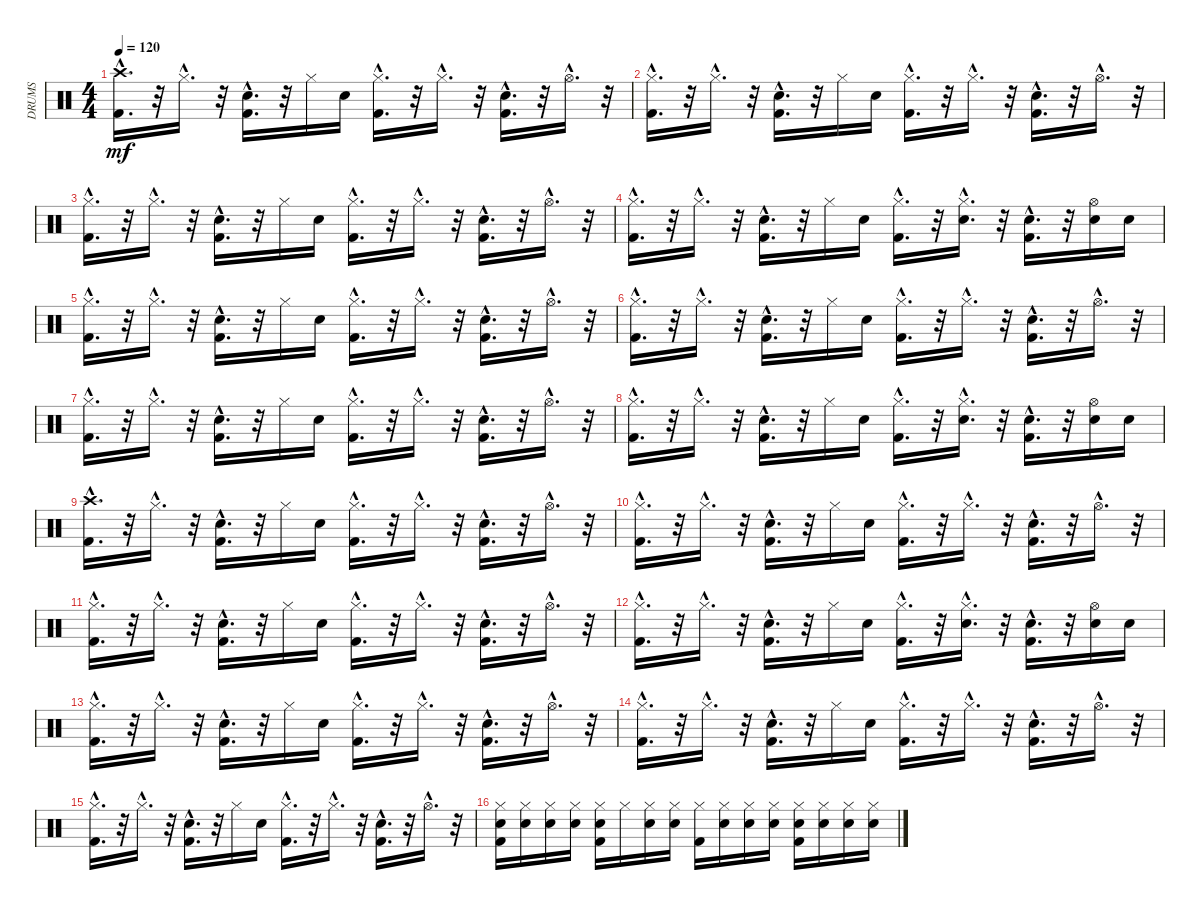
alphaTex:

\track ("DRUMS" "DRUMS") {instrument percussion}
\staff {score}
\articulation defaults
\ts (4 4)
\tempo 120
\clef neutral
\ks c
("Crash high (hit)"{hac} "Kick (hit) 2"{hac}).16{d dy mf} r.32 "Hi-Hat (closed)"{hac}.16{d} r.32 ("Kick (hit) 2"{hac} "Electric Snare (hit)"{hac}).16{d} r.32 "Hi-Hat (closed)".16 "Electric Snare (hit)".16 ("Kick (hit) 2"{hac} "Hi-Hat (closed)"{hac}).16{d} r.32 "Hi-Hat (closed)"{hac}.16{d} r.32 ("Kick (hit) 2"{hac} "Electric Snare (hit)"{hac}).16{d} r.32 "Hi-Hat (open)"{hac}.16{d} r.32 |
("Hi-Hat (closed)"{hac} "Kick (hit) 2"{hac}).16{d} r.32 "Hi-Hat (closed)"{hac}.16{d} r.32 ("Electric Snare (hit)"{hac} "Kick (hit) 2"{hac}).16{d} r.32 "Hi-Hat (closed)".16 "Electric Snare (hit)".16 ("Hi-Hat (closed)"{hac} "Kick (hit) 2"{hac}).16{d} r.32 "Hi-Hat (closed)"{hac}.16{d} r.32 ("Electric Snare (hit)"{hac} "Kick (hit) 2"{hac}).16{d} r.32 "Hi-Hat (open)"{hac}.16{d} r.32 |
("Hi-Hat (closed)"{hac} "Kick (hit) 2"{hac}).16{d} r.32 "Hi-Hat (closed)"{hac}.16{d} r.32 ("Electric Snare (hit)"{hac} "Kick (hit) 2"{hac}).16{d} r.32 "Hi-Hat (closed)".16 "Electric Snare (hit)".16 ("Hi-Hat (closed)"{hac} "Kick (hit) 2"{hac}).16{d} r.32 "Hi-Hat (closed)"{hac}.16{d} r.32 ("Electric Snare (hit)"{hac} "Kick (hit) 2"{hac}).16{d} r.32 "Hi-Hat (open)"{hac}.16{d} r.32 |
("Hi-Hat (closed)"{hac} "Kick (hit) 2"{hac}).16{d} r.32 "Hi-Hat (closed)"{hac}.16{d} r.32 ("Electric Snare (hit)"{hac} "Kick (hit) 2"{hac}).16{d} r.32 "Hi-Hat (closed)".16 "Electric Snare (hit)".16 ("Hi-Hat (closed)"{hac} "Kick (hit) 2"{hac}).16{d} r.32 ("Hi-Hat (closed)"{hac} "Electric Snare (hit)"{hac}).16{d} r.32 ("Electric Snare (hit)"{hac} "Kick (hit) 2"{hac}).16{d} r.32 ("Hi-Hat (open)" "Electric Snare (hit)").16 "Electric Snare (hit)".16 |
("Hi-Hat (closed)"{hac} "Kick (hit) 2"{hac}).16{d} r.32 "Hi-Hat (closed)"{hac}.16{d} r.32 ("Electric Snare (hit)"{hac} "Kick (hit) 2"{hac}).16{d} r.32 "Hi-Hat (closed)".16 "Electric Snare (hit)".16 ("Hi-Hat (closed)"{hac} "Kick (hit) 2"{hac}).16{d} r.32 "Hi-Hat (closed)"{hac}.16{d} r.32 ("Electric Snare (hit)"{hac} "Kick (hit) 2"{hac}).16{d} r.32 "Hi-Hat (open)"{hac}.16{d} r.32 |
("Kick (hit) 2"{hac} "Hi-Hat (closed)"{hac}).16{d} r.32 "Hi-Hat (closed)"{hac}.16{d} r.32 ("Kick (hit) 2"{hac} "Electric Snare (hit)"{hac}).16{d} r.32 "Hi-Hat (closed)".16 "Electric Snare (hit)".16 ("Kick (hit) 2"{hac} "Hi-Hat (closed)"{hac}).16{d} r.32 "Hi-Hat (closed)"{hac}.16{d} r.32 ("Kick (hit) 2"{hac} "Electric Snare (hit)"{hac}).16{d} r.32 "Hi-Hat (open)"{hac}.16{d} r.32 |
("Kick (hit) 2"{hac} "Hi-Hat (closed)"{hac}).16{d} r.32 "Hi-Hat (closed)"{hac}.16{d} r.32 ("Kick (hit) 2"{hac} "Electric Snare (hit)"{hac}).16{d} r.32 "Hi-Hat (closed)".16 "Electric Snare (hit)".16 ("Kick (hit) 2"{hac} "Hi-Hat (closed)"{hac}).16{d} r.32 "Hi-Hat (closed)"{hac}.16{d} r.32 ("Kick (hit) 2"{hac} "Electric Snare (hit)"{hac}).16{d} r.32 "Hi-Hat (open)"{hac}.16{d} r.32 |
("Kick (hit) 2"{hac} "Hi-Hat (closed)"{hac}).16{d} r.32 "Hi-Hat (closed)"{hac}.16{d} r.32 ("Kick (hit) 2"{hac} "Electric Snare (hit)"{hac}).16{d} r.32 "Hi-Hat (closed)".16 "Electric Snare (hit)".16 ("Kick (hit) 2"{hac} "Hi-Hat (closed)"{hac}).16{d} r.32 ("Electric Snare (hit)"{hac} "Hi-Hat (closed)"{hac}).16{d} r.32 ("Kick (hit) 2"{hac} "Electric Snare (hit)"{hac}).16{d} r.32 ("Electric Snare (hit)" "Hi-Hat (open)").16 "Electric Snare (hit)".16 |
("Crash high (hit)"{hac} "Kick (hit) 2"{hac}).16{d} r.32 "Hi-Hat (closed)"{hac}.16{d} r.32 ("Kick (hit) 2"{hac} "Electric Snare (hit)"{hac}).16{d} r.32 "Hi-Hat (closed)".16 "Electric Snare (hit)".16 ("Kick (hit) 2"{hac} "Hi-Hat (closed)"{hac}).16{d} r.32 "Hi-Hat (closed)"{hac}.16{d} r.32 ("Kick (hit) 2"{hac} "Electric Snare (hit)"{hac}).16{d} r.32 "Hi-Hat (open)"{hac}.16{d} r.32 |
("Hi-Hat (closed)"{hac} "Kick (hit) 2"{hac}).16{d} r.32 "Hi-Hat (closed)"{hac}.16{d} r.32 ("Electric Snare (hit)"{hac} "Kick (hit) 2"{hac}).16{d} r.32 "Hi-Hat (closed)".16 "Electric Snare (hit)".16 ("Hi-Hat (closed)"{hac} "Kick (hit) 2"{hac}).16{d} r.32 "Hi-Hat (closed)"{hac}.16{d} r.32 ("Electric Snare (hit)"{hac} "Kick (hit) 2"{hac}).16{d} r.32 "Hi-Hat (open)"{hac}.16{d} r.32 |
("Hi-Hat (closed)"{hac} "Kick (hit) 2"{hac}).16{d} r.32 "Hi-Hat (closed)"{hac}.16{d} r.32 ("Electric Snare (hit)"{hac} "Kick (hit) 2"{hac}).16{d} r.32 "Hi-Hat (closed)".16 "Electric Snare (hit)".16 ("Hi-Hat (closed)"{hac} "Kick (hit) 2"{hac}).16{d} r.32 "Hi-Hat (closed)"{hac}.16{d} r.32 ("Electric Snare (hit)"{hac} "Kick (hit) 2"{hac}).16{d} r.32 "Hi-Hat (open)"{hac}.16{d} r.32 |
("Hi-Hat (closed)"{hac} "Kick (hit) 2"{hac}).16{d} r.32 "Hi-Hat (closed)"{hac}.16{d} r.32 ("Electric Snare (hit)"{hac} "Kick (hit) 2"{hac}).16{d} r.32 "Hi-Hat (closed)".16 "Electric Snare (hit)".16 ("Hi-Hat (closed)"{hac} "Kick (hit) 2"{hac}).16{d} r.32 ("Hi-Hat (closed)"{hac} "Electric Snare (hit)"{hac}).16{d} r.32 ("Electric Snare (hit)"{hac} "Kick (hit) 2"{hac}).16{d} r.32 ("Hi-Hat (open)" "Electric Snare (hit)").16 "Electric Snare (hit)".16 |
("Hi-Hat (closed)"{hac} "Kick (hit) 2"{hac}).16{d} r.32 "Hi-Hat (closed)"{hac}.16{d} r.32 ("Electric Snare (hit)"{hac} "Kick (hit) 2"{hac}).16{d} r.32 "Hi-Hat (closed)".16 "Electric Snare (hit)".16 ("Hi-Hat (closed)"{hac} "Kick (hit) 2"{hac}).16{d} r.32 "Hi-Hat (closed)"{hac}.16{d} r.32 ("Electric Snare (hit)"{hac} "Kick (hit) 2"{hac}).16{d} r.32 "Hi-Hat (open)"{hac}.16{d} r.32 |
("Kick (hit) 2"{hac} "Hi-Hat (closed)"{hac}).16{d} r.32 "Hi-Hat (closed)"{hac}.16{d} r.32 ("Kick (hit) 2"{hac} "Electric Snare (hit)"{hac}).16{d} r.32 "Hi-Hat (closed)".16 "Electric Snare (hit)".16 ("Hi-Hat (closed)"{hac} "Kick (hit) 2"{hac}).16{d} r.32 "Hi-Hat (closed)"{hac}.16{d} r.32 ("Kick (hit) 2"{hac} "Electric Snare (hit)"{hac}).16{d} r.32 "Hi-Hat (open)"{hac}.16{d} r.32 |
("Kick (hit) 2"{hac} "Hi-Hat (closed)"{hac}).16{d} r.32 "Hi-Hat (closed)"{hac}.16{d} r.32 ("Kick (hit) 2"{hac} "Electric Snare (hit)"{hac}).16{d} r.32 "Hi-Hat (closed)".16 "Electric Snare (hit)".16 ("Kick (hit) 2"{hac} "Hi-Hat (closed)"{hac}).16{d} r.32 "Hi-Hat (closed)"{hac}.16{d} r.32 ("Kick (hit) 2"{hac} "Electric Snare (hit)"{hac}).16{d} r.32 "Hi-Hat (open)"{hac}.16{d} r.32 |
("Electric Snare (hit)" "Kick (hit) 2" "Hi-Hat (closed)").16 ("Electric Snare (hit)" "Hi-Hat (closed)").16 ("Electric Snare (hit)" "Hi-Hat (closed)").16 ("Hi-Hat (closed)" "Electric Snare (hit)").16 ("Hi-Hat (closed)" "Kick (hit) 2" "Electric Snare (hit)").16 "Hi-Hat (closed)".16 ("Electric Snare (hit)" "Hi-Hat (closed)").16 ("Hi-Hat (closed)" "Electric Snare (hit)").16 ("Hi-Hat (closed)" "Kick (hit) 2").16 ("Hi-Hat (closed)" "Electric Snare (hit)").16 ("Electric Snare (hit)" "Hi-Hat (closed)").16 ("Hi-Hat (closed)" "Electric Snare (hit)").16 ("Hi-Hat (closed)" "Kick (hit) 2" "Electric Snare (hit)").16 ("Hi-Hat (closed)" "Electric Snare (hit)").16 ("Electric Snare (hit)" "Hi-Hat (closed)").16 ("Electric Snare (hit)" "Hi-Hat (closed)").16
